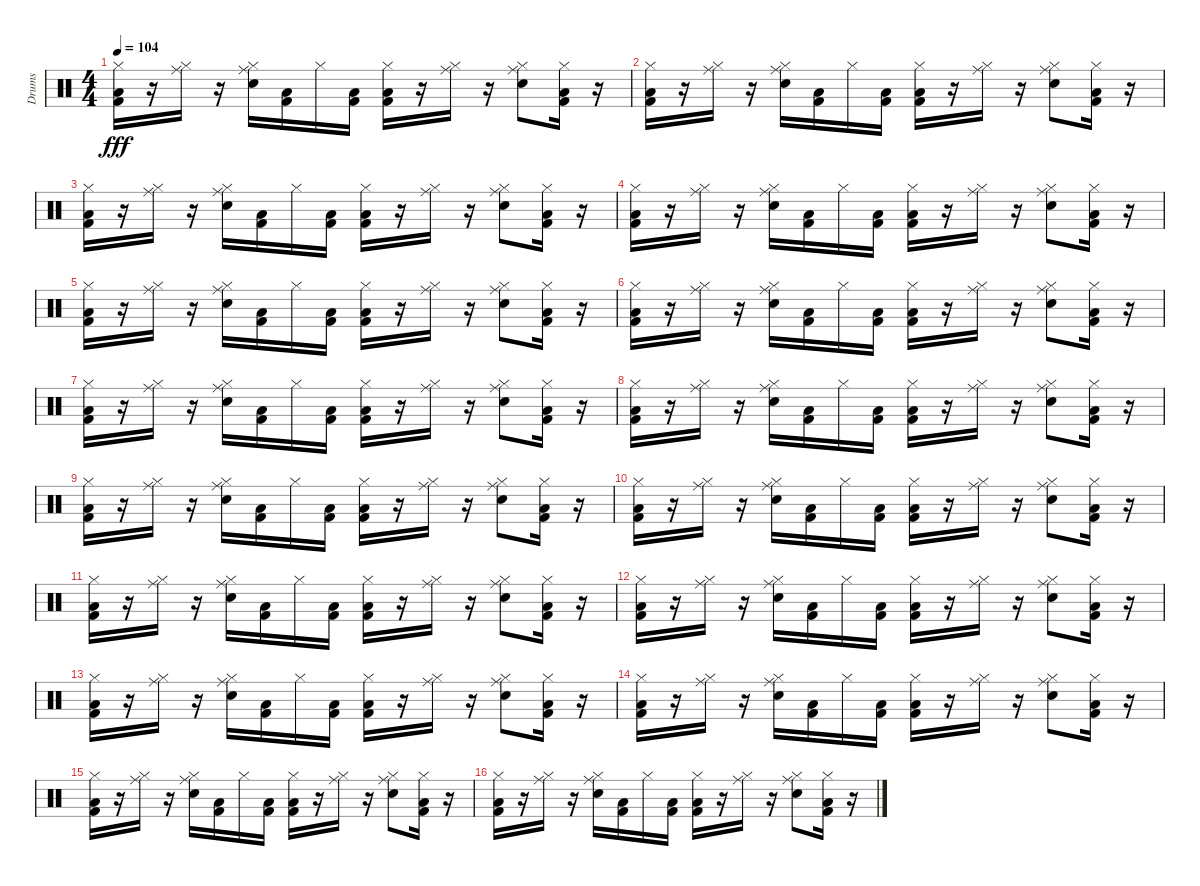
\track ("Drums" "Drums") {instrument percussion}
\staff {score}
\articulation defaults
\ts (4 4)
\tempo 104
\clef neutral
\ks c
("Hi-Hat (closed)" "Kick (hit) 2" "Low Floor Tom (hit)").16{dy fff} r.16 ("Hi-Hat (closed)" "Ride (middle)").16 r.16 ("Ride (middle)" "Hi-Hat (closed)" "Electric Snare (hit)").16 ("Kick (hit) 2" "Low Floor Tom (hit)").16 "Hi-Hat (closed)".16 ("Kick (hit) 2" "Low Floor Tom (hit)").16 ("Hi-Hat (closed)" "Low Floor Tom (hit)" "Kick (hit) 2").16 r.16 ("Hi-Hat (closed)" "Ride (middle)").16 r.16 ("Ride (middle)" "Electric Snare (hit)" "Hi-Hat (closed)").8 ("Kick (hit) 2" "Low Floor Tom (hit)" "Hi-Hat (closed)").16 r.16 |
("Hi-Hat (closed)" "Low Floor Tom (hit)" "Kick (hit) 2").16 r.16 ("Hi-Hat (closed)" "Ride (middle)").16 r.16 ("Electric Snare (hit)" "Ride (middle)" "Hi-Hat (closed)").16 ("Kick (hit) 2" "Low Floor Tom (hit)").16 "Hi-Hat (closed)".16 ("Kick (hit) 2" "Low Floor Tom (hit)").16 ("Hi-Hat (closed)" "Low Floor Tom (hit)" "Kick (hit) 2").16 r.16 ("Hi-Hat (closed)" "Ride (middle)").16 r.16 ("Electric Snare (hit)" "Ride (middle)" "Hi-Hat (closed)").8 ("Kick (hit) 2" "Hi-Hat (closed)" "Low Floor Tom (hit)").16 r.16 |
("Low Floor Tom (hit)" "Hi-Hat (closed)" "Kick (hit) 2").16 r.16 ("Ride (middle)" "Hi-Hat (closed)").16 r.16 ("Electric Snare (hit)" "Hi-Hat (closed)" "Ride (middle)").16 ("Low Floor Tom (hit)" "Kick (hit) 2").16 "Hi-Hat (closed)".16 ("Low Floor Tom (hit)" "Kick (hit) 2").16 ("Hi-Hat (closed)" "Kick (hit) 2" "Low Floor Tom (hit)").16 r.16 ("Ride (middle)" "Hi-Hat (closed)").16 r.16 ("Electric Snare (hit)" "Ride (middle)" "Hi-Hat (closed)").8 ("Kick (hit) 2" "Low Floor Tom (hit)" "Hi-Hat (closed)").16 r.16 |
("Low Floor Tom (hit)" "Hi-Hat (closed)" "Kick (hit) 2").16 r.16 ("Ride (middle)" "Hi-Hat (closed)").16 r.16 ("Ride (middle)" "Electric Snare (hit)" "Hi-Hat (closed)").16 ("Low Floor Tom (hit)" "Kick (hit) 2").16 "Hi-Hat (closed)".16 ("Low Floor Tom (hit)" "Kick (hit) 2").16 ("Low Floor Tom (hit)" "Hi-Hat (closed)" "Kick (hit) 2").16 r.16 ("Hi-Hat (closed)" "Ride (middle)").16 r.16 ("Ride (middle)" "Electric Snare (hit)" "Hi-Hat (closed)").8 ("Kick (hit) 2" "Low Floor Tom (hit)" "Hi-Hat (closed)").16 r.16 |
("Kick (hit) 2" "Low Floor Tom (hit)" "Hi-Hat (closed)").16 r.16 ("Hi-Hat (closed)" "Ride (middle)").16 r.16 ("Hi-Hat (closed)" "Ride (middle)" "Electric Snare (hit)").16 ("Low Floor Tom (hit)" "Kick (hit) 2").16 "Hi-Hat (closed)".16 ("Low Floor Tom (hit)" "Kick (hit) 2").16 ("Low Floor Tom (hit)" "Kick (hit) 2" "Hi-Hat (closed)").16 r.16 ("Ride (middle)" "Hi-Hat (closed)").16 r.16 ("Electric Snare (hit)" "Hi-Hat (closed)" "Ride (middle)").8 ("Hi-Hat (closed)" "Low Floor Tom (hit)" "Kick (hit) 2").16 r.16 |
("Low Floor Tom (hit)" "Kick (hit) 2" "Hi-Hat (closed)").16 r.16 ("Hi-Hat (closed)" "Ride (middle)").16 r.16 ("Hi-Hat (closed)" "Ride (middle)" "Electric Snare (hit)").16 ("Kick (hit) 2" "Low Floor Tom (hit)").16 "Hi-Hat (closed)".16 ("Kick (hit) 2" "Low Floor Tom (hit)").16 ("Low Floor Tom (hit)" "Hi-Hat (closed)" "Kick (hit) 2").16 r.16 ("Hi-Hat (closed)" "Ride (middle)").16 r.16 ("Electric Snare (hit)" "Hi-Hat (closed)" "Ride (middle)").8 ("Hi-Hat (closed)" "Kick (hit) 2" "Low Floor Tom (hit)").16 r.16 |
("Kick (hit) 2" "Low Floor Tom (hit)" "Hi-Hat (closed)").16 r.16 ("Ride (middle)" "Hi-Hat (closed)").16 r.16 ("Hi-Hat (closed)" "Electric Snare (hit)" "Ride (middle)").16 ("Low Floor Tom (hit)" "Kick (hit) 2").16 "Hi-Hat (closed)".16 ("Low Floor Tom (hit)" "Kick (hit) 2").16 ("Low Floor Tom (hit)" "Kick (hit) 2" "Hi-Hat (closed)").16 r.16 ("Hi-Hat (closed)" "Ride (middle)").16 r.16 ("Hi-Hat (closed)" "Electric Snare (hit)" "Ride (middle)").8 ("Low Floor Tom (hit)" "Kick (hit) 2" "Hi-Hat (closed)").16 r.16 |
("Hi-Hat (closed)" "Low Floor Tom (hit)" "Kick (hit) 2").16 r.16 ("Hi-Hat (closed)" "Ride (middle)").16 r.16 ("Hi-Hat (closed)" "Ride (middle)" "Electric Snare (hit)").16 ("Kick (hit) 2" "Low Floor Tom (hit)").16 "Hi-Hat (closed)".16 ("Kick (hit) 2" "Low Floor Tom (hit)").16 ("Low Floor Tom (hit)" "Kick (hit) 2" "Hi-Hat (closed)").16 r.16 ("Ride (middle)" "Hi-Hat (closed)").16 r.16 ("Hi-Hat (closed)" "Ride (middle)" "Electric Snare (hit)").8 ("Hi-Hat (closed)" "Low Floor Tom (hit)" "Kick (hit) 2").16 r.16 |
("Low Floor Tom (hit)" "Hi-Hat (closed)" "Kick (hit) 2").16 r.16 ("Ride (middle)" "Hi-Hat (closed)").16 r.16 ("Electric Snare (hit)" "Ride (middle)" "Hi-Hat (closed)").16 ("Low Floor Tom (hit)" "Kick (hit) 2").16 "Hi-Hat (closed)".16 ("Low Floor Tom (hit)" "Kick (hit) 2").16 ("Low Floor Tom (hit)" "Hi-Hat (closed)" "Kick (hit) 2").16 r.16 ("Ride (middle)" "Hi-Hat (closed)").16 r.16 ("Hi-Hat (closed)" "Ride (middle)" "Electric Snare (hit)").8 ("Low Floor Tom (hit)" "Kick (hit) 2" "Hi-Hat (closed)").16 r.16 |
("Kick (hit) 2" "Hi-Hat (closed)" "Low Floor Tom (hit)").16 r.16 ("Hi-Hat (closed)" "Ride (middle)").16 r.16 ("Hi-Hat (closed)" "Electric Snare (hit)" "Ride (middle)").16 ("Low Floor Tom (hit)" "Kick (hit) 2").16 "Hi-Hat (closed)".16 ("Kick (hit) 2" "Low Floor Tom (hit)").16 ("Kick (hit) 2" "Hi-Hat (closed)" "Low Floor Tom (hit)").16 r.16 ("Ride (middle)" "Hi-Hat (closed)").16 r.16 ("Hi-Hat (closed)" "Ride (middle)" "Electric Snare (hit)").8 ("Kick (hit) 2" "Hi-Hat (closed)" "Low Floor Tom (hit)").16 r.16 |
("Kick (hit) 2" "Low Floor Tom (hit)" "Hi-Hat (closed)").16 r.16 ("Ride (middle)" "Hi-Hat (closed)").16 r.16 ("Hi-Hat (closed)" "Ride (middle)" "Electric Snare (hit)").16 ("Low Floor Tom (hit)" "Kick (hit) 2").16 "Hi-Hat (closed)".16 ("Low Floor Tom (hit)" "Kick (hit) 2").16 ("Hi-Hat (closed)" "Kick (hit) 2" "Low Floor Tom (hit)").16 r.16 ("Hi-Hat (closed)" "Ride (middle)").16 r.16 ("Electric Snare (hit)" "Ride (middle)" "Hi-Hat (closed)").8 ("Hi-Hat (closed)" "Kick (hit) 2" "Low Floor Tom (hit)").16 r.16 |
("Kick (hit) 2" "Hi-Hat (closed)" "Low Floor Tom (hit)").16 r.16 ("Hi-Hat (closed)" "Ride (middle)").16 r.16 ("Electric Snare (hit)" "Hi-Hat (closed)" "Ride (middle)").16 ("Low Floor Tom (hit)" "Kick (hit) 2").16 "Hi-Hat (closed)".16 ("Kick (hit) 2" "Low Floor Tom (hit)").16 ("Kick (hit) 2" "Low Floor Tom (hit)" "Hi-Hat (closed)").16 r.16 ("Hi-Hat (closed)" "Ride (middle)").16 r.16 ("Hi-Hat (closed)" "Ride (middle)" "Electric Snare (hit)").8 ("Hi-Hat (closed)" "Kick (hit) 2" "Low Floor Tom (hit)").16 r.16 |
("Kick (hit) 2" "Low Floor Tom (hit)" "Hi-Hat (closed)").16 r.16 ("Hi-Hat (closed)" "Ride (middle)").16 r.16 ("Electric Snare (hit)" "Ride (middle)" "Hi-Hat (closed)").16 ("Kick (hit) 2" "Low Floor Tom (hit)").16 "Hi-Hat (closed)".16 ("Low Floor Tom (hit)" "Kick (hit) 2").16 ("Hi-Hat (closed)" "Low Floor Tom (hit)" "Kick (hit) 2").16 r.16 ("Hi-Hat (closed)" "Ride (middle)").16 r.16 ("Hi-Hat (closed)" "Ride (middle)" "Electric Snare (hit)").8 ("Hi-Hat (closed)" "Low Floor Tom (hit)" "Kick (hit) 2").16 r.16 |
("Low Floor Tom (hit)" "Kick (hit) 2" "Hi-Hat (closed)").16{volume 16} r.16 ("Hi-Hat (closed)" "Ride (middle)").16{volume 15} r.16 ("Hi-Hat (closed)" "Ride (middle)" "Electric Snare (hit)").16{volume 15} ("Kick (hit) 2" "Low Floor Tom (hit)").16 "Hi-Hat (closed)".16 ("Low Floor Tom (hit)" "Kick (hit) 2").16{volume 14} ("Low Floor Tom (hit)" "Hi-Hat (closed)" "Kick (hit) 2").16{volume 14} r.16 ("Hi-Hat (closed)" "Ride (middle)").16{volume 14} r.16 ("Hi-Hat (closed)" "Ride (middle)" "Electric Snare (hit)").8 ("Kick (hit) 2" "Hi-Hat (closed)" "Low Floor Tom (hit)").16{volume 13} r.16 |
("Kick (hit) 2" "Low Floor Tom (hit)" "Hi-Hat (closed)").16{volume 12} r.16 ("Ride (middle)" "Hi-Hat (closed)").16{volume 11} r.16 ("Electric Snare (hit)" "Ride (middle)" "Hi-Hat (closed)").16 ("Low Floor Tom (hit)" "Kick (hit) 2").16{volume 10} "Hi-Hat (closed)".16 ("Low Floor Tom (hit)" "Kick (hit) 2").16 ("Kick (hit) 2" "Hi-Hat (closed)" "Low Floor Tom (hit)").16{volume 10} r.16 ("Hi-Hat (closed)" "Ride (middle)").16{volume 10} r.16 ("Ride (middle)" "Hi-Hat (closed)" "Electric Snare (hit)").8{volume 9} ("Low Floor Tom (hit)" "Kick (hit) 2" "Hi-Hat (closed)").16{volume 8} r.16 |
("Low Floor Tom (hit)" "Hi-Hat (closed)" "Kick (hit) 2").16{volume 7} r.16 ("Hi-Hat (closed)" "Ride (middle)").16 r.16 ("Electric Snare (hit)" "Hi-Hat (closed)" "Ride (middle)").16{volume 7} ("Kick (hit) 2" "Low Floor Tom (hit)").16{volume 6} "Hi-Hat (closed)".16 ("Kick (hit) 2" "Low Floor Tom (hit)").16{volume 6} ("Kick (hit) 2" "Low Floor Tom (hit)" "Hi-Hat (closed)").16 r.16 ("Ride (middle)" "Hi-Hat (closed)").16{volume 5} r.16 ("Electric Snare (hit)" "Ride (middle)" "Hi-Hat (closed)").8{volume 4} ("Low Floor Tom (hit)" "Hi-Hat (closed)" "Kick (hit) 2").16{volume 4} r.16
